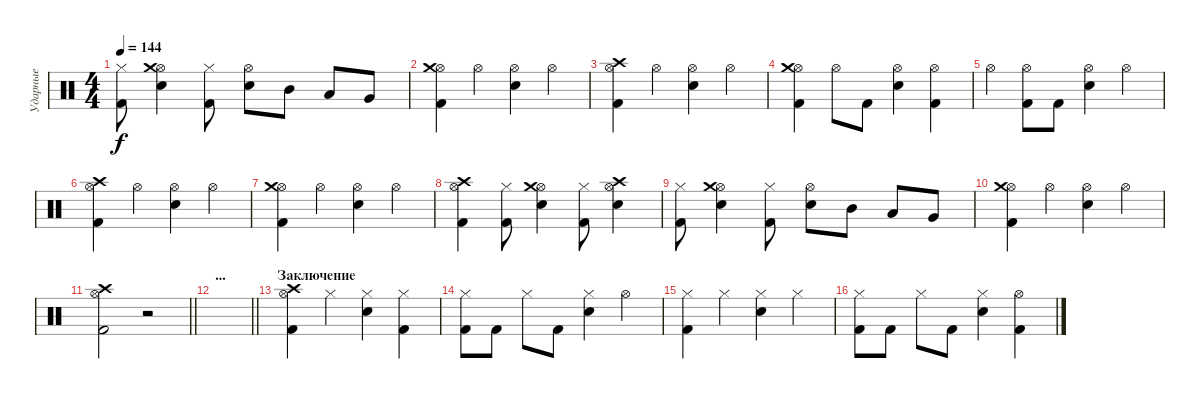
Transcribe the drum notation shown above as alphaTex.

\track ("Ударные" "Ударные") {instrument percussion}
\staff {score}
\articulation defaults
\ts (4 4)
\tempo 144
\clef neutral
\ks c
("Kick (hit) 2" "Hi-Hat (closed)").8{dy f} ("Snare (hit) 2" "Hi-Hat (open)" "Crash medium (hit)").4 ("Kick (hit) 2" "Hi-Hat (closed)").8 ("Snare (hit) 2" "Hi-Hat (open)").8 "Mid Tom (hit)".8 "Low Tom (hit)".8 "Very Low Tom (hit)".8 |
("Kick (hit) 2" "Hi-Hat (open)" "Crash medium (hit)").4 "Hi-Hat (open)".4 ("Snare (hit) 2" "Hi-Hat (open)").4 "Hi-Hat (open)".4 |
("Kick (hit) 2" "Hi-Hat (open)" "Crash high (hit)").4 "Hi-Hat (open)".4 ("Snare (hit) 2" "Hi-Hat (open)").4 "Hi-Hat (open)".4 |
("Kick (hit) 2" "Hi-Hat (open)" "Crash medium (hit)").4 "Hi-Hat (open)".8 "Kick (hit) 2".8 ("Snare (hit) 2" "Hi-Hat (open)").4 ("Kick (hit) 2" "Hi-Hat (open)").4 |
"Hi-Hat (open)".4 ("Kick (hit) 2" "Hi-Hat (open)").8 "Kick (hit) 2".8 ("Snare (hit) 2" "Hi-Hat (open)").4 "Hi-Hat (open)".4 |
("Kick (hit) 2" "Hi-Hat (open)" "Crash high (hit)").4 "Hi-Hat (open)".4 ("Snare (hit) 2" "Hi-Hat (open)").4 "Hi-Hat (open)".4 |
("Kick (hit) 2" "Hi-Hat (open)" "Crash medium (hit)").4 "Hi-Hat (open)".4 ("Snare (hit) 2" "Hi-Hat (open)").4 "Hi-Hat (open)".4 |
("Kick (hit) 2" "Hi-Hat (open)" "Crash high (hit)").4 ("Kick (hit) 2" "Hi-Hat (closed)").8 ("Snare (hit) 2" "Hi-Hat (open)" "Crash medium (hit)").4 ("Kick (hit) 2" "Hi-Hat (closed)").8 ("Snare (hit) 2" "Hi-Hat (open)" "Crash high (hit)").4 |
("Kick (hit) 2" "Hi-Hat (closed)").8 ("Snare (hit) 2" "Hi-Hat (open)" "Crash medium (hit)").4 ("Kick (hit) 2" "Hi-Hat (closed)").8 ("Snare (hit) 2" "Hi-Hat (open)").8 "Mid Tom (hit)".8 "Low Tom (hit)".8 "Very Low Tom (hit)".8 |
("Kick (hit) 2" "Hi-Hat (open)" "Crash medium (hit)").4 "Hi-Hat (open)".4 ("Snare (hit) 2" "Hi-Hat (open)").4 "Hi-Hat (open)".4 |
\barLineRight lightlight
("Kick (hit) 2" "Hi-Hat (open)" "Crash high (hit)").2 r.2 |
\section ("" "...")
\barLineRight lightlight
|
\section ("" "Заключение")
("Kick (hit) 2" "Hi-Hat (open)" "Crash high (hit)").4 "Hi-Hat (closed)".4 ("Snare (hit) 2" "Hi-Hat (closed)").4 ("Kick (hit) 2" "Hi-Hat (closed)").4 |
("Kick (hit) 2" "Hi-Hat (closed)").8 "Kick (hit) 2".8 "Hi-Hat (closed)".8 "Kick (hit) 2".8 ("Snare (hit) 2" "Hi-Hat (closed)").4 "Hi-Hat (open)".4 |
("Kick (hit) 2" "Hi-Hat (closed)").4 "Hi-Hat (closed)".4 ("Snare (hit) 2" "Hi-Hat (closed)").4 "Hi-Hat (closed)".4 |
("Kick (hit) 2" "Hi-Hat (closed)").8 "Kick (hit) 2".8 "Hi-Hat (closed)".8 "Kick (hit) 2".8 ("Snare (hit) 2" "Hi-Hat (closed)").4 ("Kick (hit) 2" "Hi-Hat (open)").4
